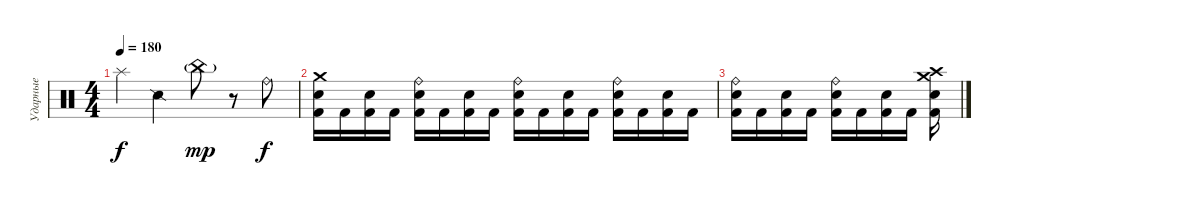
\track ("Ударные" "Ударные") {instrument percussion}
\staff {score}
\articulation defaults
\ts (4 4)
\tempo 180
\clef neutral
\ks c "Splash (hit)".4{dy f} "Snare (side stick) 2".4 "China (hit)"{g}.8{dy mp}
r.8 "Ride (bell)".8{dy f} |
("Crash medium (hit)" "Snare (hit) 2" "Kick (hit) 2").16 "Kick (hit) 2".16 ("Snare (hit) 2" "Kick (hit) 2").16 "Kick (hit) 2".16 ("Ride (bell)" "Snare (hit) 2" "Kick (hit) 2").16 "Kick (hit) 2".16 ("Snare (hit) 2" "Kick (hit) 2").16 "Kick (hit) 2".16 ("Ride (bell)" "Snare (hit) 2" "Kick (hit) 2").16 "Kick (hit) 2".16 ("Snare (hit) 2" "Kick (hit) 2").16 "Kick (hit) 2".16 ("Ride (bell)" "Snare (hit) 2" "Kick (hit) 2").16 "Kick (hit) 2".16 ("Snare (hit) 2" "Kick (hit) 2").16 "Kick (hit) 2".16 |
("Ride (bell)" "Snare (hit) 2" "Kick (hit) 2").16 "Kick (hit) 2".16 ("Snare (hit) 2" "Kick (hit) 2").16 "Kick (hit) 2".16 ("Ride (bell)" "Snare (hit) 2" "Kick (hit) 2").16 "Kick (hit) 2".16 ("Snare (hit) 2" "Kick (hit) 2").16 "Kick (hit) 2".16 ("Crash medium (hit)" "Crash high (hit)" "Snare (hit) 2" "Kick (hit) 2").16
